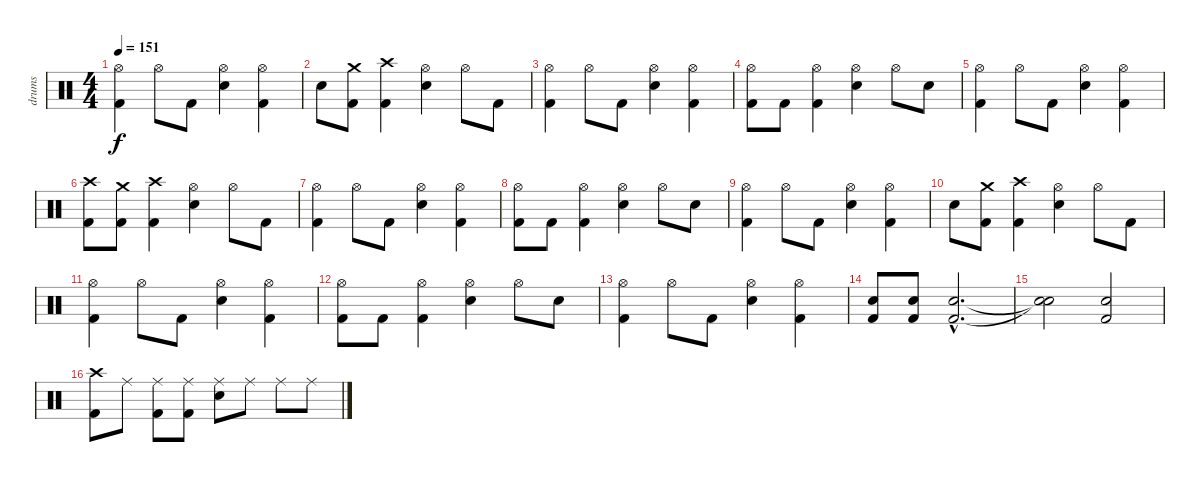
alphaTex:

\track ("drums" "drums") {instrument percussion}
\staff {score}
\articulation defaults
\ts (4 4)
\tempo 151
\clef neutral
\ks c
("Hi-Hat (open)" "Kick (hit) 2").4{dy f} "Hi-Hat (open)".8 "Kick (hit) 2".8 ("Hi-Hat (open)" "Electric Snare (hit)").4 ("Hi-Hat (open)" "Kick (hit) 2").4 |
"Electric Snare (hit)".8 ("Crash medium (hit)" "Kick (hit) 2").8 ("Crash high (hit)" "Kick (hit) 2").4 ("Hi-Hat (open)" "Electric Snare (hit)").4 "Hi-Hat (open)".8 "Kick (hit) 2".8 |
("Hi-Hat (open)" "Kick (hit) 2").4 "Hi-Hat (open)".8 "Kick (hit) 2".8 ("Hi-Hat (open)" "Electric Snare (hit)").4 ("Hi-Hat (open)" "Kick (hit) 2").4 |
("Hi-Hat (open)" "Kick (hit) 2").8 "Kick (hit) 2".8 ("Hi-Hat (open)" "Kick (hit) 2").4 ("Hi-Hat (open)" "Electric Snare (hit)").4 "Hi-Hat (open)".8 "Electric Snare (hit)".8 |
("Hi-Hat (open)" "Kick (hit) 2").4 "Hi-Hat (open)".8 "Kick (hit) 2".8 ("Hi-Hat (open)" "Electric Snare (hit)").4 ("Hi-Hat (open)" "Kick (hit) 2").4 |
("Crash high (hit)" "Kick (hit) 2").8 ("Crash medium (hit)" "Kick (hit) 2").8 ("Crash high (hit)" "Kick (hit) 2").4 ("Hi-Hat (open)" "Electric Snare (hit)").4 "Hi-Hat (open)".8 "Kick (hit) 2".8 |
("Hi-Hat (open)" "Kick (hit) 2").4 "Hi-Hat (open)".8 "Kick (hit) 2".8 ("Hi-Hat (open)" "Electric Snare (hit)").4 ("Hi-Hat (open)" "Kick (hit) 2").4 |
("Hi-Hat (open)" "Kick (hit) 2").8 "Kick (hit) 2".8 ("Hi-Hat (open)" "Kick (hit) 2").4 ("Hi-Hat (open)" "Electric Snare (hit)").4 "Hi-Hat (open)".8 "Electric Snare (hit)".8 |
("Hi-Hat (open)" "Kick (hit) 2").4 "Hi-Hat (open)".8 "Kick (hit) 2".8 ("Hi-Hat (open)" "Electric Snare (hit)").4 ("Hi-Hat (open)" "Kick (hit) 2").4 |
"Electric Snare (hit)".8 ("Crash medium (hit)" "Kick (hit) 2").8 ("Crash high (hit)" "Kick (hit) 2").4 ("Hi-Hat (open)" "Electric Snare (hit)").4 "Hi-Hat (open)".8 "Kick (hit) 2".8 |
("Hi-Hat (open)" "Kick (hit) 2").4 "Hi-Hat (open)".8 "Kick (hit) 2".8 ("Hi-Hat (open)" "Electric Snare (hit)").4 ("Hi-Hat (open)" "Kick (hit) 2").4 |
("Hi-Hat (open)" "Kick (hit) 2").8 "Kick (hit) 2".8 ("Hi-Hat (open)" "Kick (hit) 2").4 ("Hi-Hat (open)" "Electric Snare (hit)").4 "Hi-Hat (open)".8 "Electric Snare (hit)".8 |
("Hi-Hat (open)" "Kick (hit) 2").4 "Hi-Hat (open)".8 "Kick (hit) 2".8 ("Hi-Hat (open)" "Electric Snare (hit)").4 ("Hi-Hat (open)" "Kick (hit) 2").4 |
("Kick (hit) 2" "Electric Snare (hit)").8 ("Kick (hit) 2" "Electric Snare (hit)").8 ("Kick (hit) 2"{hac} "Electric Snare (hit)"{hac}).2{d} |
("Snare (hit)"{t} "Snare (hit)"{t}).2 ("Kick (hit) 2" "Electric Snare (hit)").2 |
("Crash high (hit)" "Kick (hit) 2").8 "Ride (middle)".8 ("Kick (hit) 2" "Ride (middle)").8 ("Kick (hit) 2" "Ride (middle)").8 ("Electric Snare (hit)" "Ride (middle)").8 "Ride (middle)".8 "Ride (middle)".8 "Ride (middle)".8
